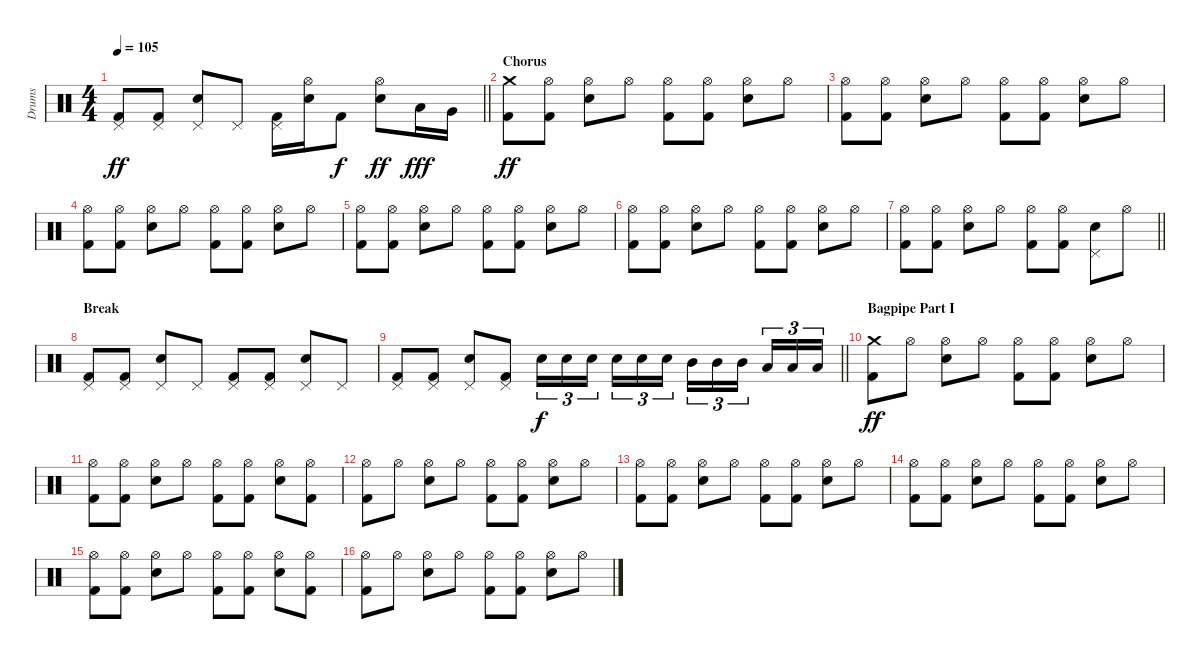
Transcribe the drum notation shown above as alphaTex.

\track ("Drums" "Drums") {instrument percussion}
\staff {score}
\articulation defaults
\ts (4 4)
\tempo 105
\clef neutral
\barLineRight lightlight
\ks c
("Pedal Hi-Hat (hit)" "Kick (hit) 2").8{dy ff} ("Pedal Hi-Hat (hit)" "Kick (hit) 2").8 ("Pedal Hi-Hat (hit)" "Electric Snare (hit)").8 "Pedal Hi-Hat (hit)".8 ("Pedal Hi-Hat (hit)" "Kick (hit) 2").16 ("Hi-Hat (open)" "Electric Snare (hit)").16 "Kick (hit) 2".8{dy f} ("Hi-Hat (open)" "Electric Snare (hit)").8{dy ff} "Low Tom (hit)".16{dy fff} "Very Low Tom (hit)".16 |
\section ("" "Chorus")
("Crash medium (hit)" "Kick (hit) 2").8{dy ff} ("Hi-Hat (open)" "Kick (hit) 2").8 ("Hi-Hat (open)" "Electric Snare (hit)").8 "Hi-Hat (open)".8 ("Hi-Hat (open)" "Kick (hit) 2").8 ("Hi-Hat (open)" "Kick (hit) 2").8 ("Hi-Hat (open)" "Electric Snare (hit)").8 "Hi-Hat (open)".8 |
("Hi-Hat (open)" "Kick (hit) 2").8 ("Hi-Hat (open)" "Kick (hit) 2").8 ("Hi-Hat (open)" "Electric Snare (hit)").8 "Hi-Hat (open)".8 ("Hi-Hat (open)" "Kick (hit) 2").8 ("Hi-Hat (open)" "Kick (hit) 2").8 ("Hi-Hat (open)" "Electric Snare (hit)").8 "Hi-Hat (open)".8 |
("Hi-Hat (open)" "Kick (hit) 2").8 ("Hi-Hat (open)" "Kick (hit) 2").8 ("Hi-Hat (open)" "Electric Snare (hit)").8 "Hi-Hat (open)".8 ("Hi-Hat (open)" "Kick (hit) 2").8 ("Hi-Hat (open)" "Kick (hit) 2").8 ("Hi-Hat (open)" "Electric Snare (hit)").8 "Hi-Hat (open)".8 |
("Hi-Hat (open)" "Kick (hit) 2").8 ("Hi-Hat (open)" "Kick (hit) 2").8 ("Hi-Hat (open)" "Electric Snare (hit)").8 "Hi-Hat (open)".8 ("Hi-Hat (open)" "Kick (hit) 2").8 ("Hi-Hat (open)" "Kick (hit) 2").8 ("Hi-Hat (open)" "Electric Snare (hit)").8 "Hi-Hat (open)".8 |
("Hi-Hat (open)" "Kick (hit) 2").8 ("Hi-Hat (open)" "Kick (hit) 2").8 ("Hi-Hat (open)" "Electric Snare (hit)").8 "Hi-Hat (open)".8 ("Hi-Hat (open)" "Kick (hit) 2").8 ("Hi-Hat (open)" "Kick (hit) 2").8 ("Hi-Hat (open)" "Electric Snare (hit)").8 "Hi-Hat (open)".8 |
\barLineRight lightlight
("Hi-Hat (open)" "Kick (hit) 2").8 ("Hi-Hat (open)" "Kick (hit) 2").8 ("Hi-Hat (open)" "Electric Snare (hit)").8 "Hi-Hat (open)".8 ("Hi-Hat (open)" "Kick (hit) 2").8 ("Hi-Hat (open)" "Kick (hit) 2").8 ("Pedal Hi-Hat (hit)" "Electric Snare (hit)").8 "Hi-Hat (open)".8 |
\section ("" "Break")
("Pedal Hi-Hat (hit)" "Kick (hit) 2").8 ("Pedal Hi-Hat (hit)" "Kick (hit) 2").8 ("Pedal Hi-Hat (hit)" "Electric Snare (hit)").8 "Pedal Hi-Hat (hit)".8 ("Pedal Hi-Hat (hit)" "Kick (hit) 2").8 ("Pedal Hi-Hat (hit)" "Kick (hit) 2").8 ("Pedal Hi-Hat (hit)" "Electric Snare (hit)").8 "Pedal Hi-Hat (hit)".8 |
\barLineRight lightlight
("Pedal Hi-Hat (hit)" "Kick (hit) 2").8 ("Pedal Hi-Hat (hit)" "Kick (hit) 2").8 ("Pedal Hi-Hat (hit)" "Electric Snare (hit)").8 ("Pedal Hi-Hat (hit)" "Kick (hit) 2").8 "Electric Snare (hit)".16{tu (3 2) dy f} "Electric Snare (hit)".16{tu (3 2)} "Electric Snare (hit)".16{tu (3 2)} "Electric Snare (hit)".16{tu (3 2)} "Electric Snare (hit)".16{tu (3 2)} "Electric Snare (hit)".16{tu (3 2)} "Mid Tom (hit)".16{tu (3 2)} "Mid Tom (hit)".16{tu (3 2)} "Mid Tom (hit)".16{tu (3 2)} "Low Tom (hit)".16{tu (3 2)} "Low Tom (hit)".16{tu (3 2)} "Low Tom (hit)".16{tu (3 2)} |
\section ("" "Bagpipe Part I")
("Crash medium (hit)" "Kick (hit) 2").8{dy ff} "Hi-Hat (open)".8 ("Hi-Hat (open)" "Electric Snare (hit)").8 "Hi-Hat (open)".8 ("Hi-Hat (open)" "Kick (hit) 2").8 ("Hi-Hat (open)" "Kick (hit) 2").8 ("Hi-Hat (open)" "Electric Snare (hit)").8 "Hi-Hat (open)".8 |
("Hi-Hat (open)" "Kick (hit) 2").8 ("Hi-Hat (open)" "Kick (hit) 2").8 ("Hi-Hat (open)" "Electric Snare (hit)").8 "Hi-Hat (open)".8 ("Hi-Hat (open)" "Kick (hit) 2").8 ("Hi-Hat (open)" "Kick (hit) 2").8 ("Hi-Hat (open)" "Electric Snare (hit)").8 ("Hi-Hat (open)" "Kick (hit) 2").8 |
("Hi-Hat (open)" "Kick (hit) 2").8 "Hi-Hat (open)".8 ("Hi-Hat (open)" "Electric Snare (hit)").8 "Hi-Hat (open)".8 ("Hi-Hat (open)" "Kick (hit) 2").8 ("Hi-Hat (open)" "Kick (hit) 2").8 ("Hi-Hat (open)" "Electric Snare (hit)").8 "Hi-Hat (open)".8 |
("Hi-Hat (open)" "Kick (hit) 2").8 ("Hi-Hat (open)" "Kick (hit) 2").8 ("Hi-Hat (open)" "Electric Snare (hit)").8 "Hi-Hat (open)".8 ("Hi-Hat (open)" "Kick (hit) 2").8 ("Hi-Hat (open)" "Kick (hit) 2").8 ("Hi-Hat (open)" "Electric Snare (hit)").8 "Hi-Hat (open)".8 |
("Hi-Hat (open)" "Kick (hit) 2").8 ("Hi-Hat (open)" "Kick (hit) 2").8 ("Hi-Hat (open)" "Electric Snare (hit)").8 "Hi-Hat (open)".8 ("Hi-Hat (open)" "Kick (hit) 2").8 ("Hi-Hat (open)" "Kick (hit) 2").8 ("Hi-Hat (open)" "Electric Snare (hit)").8 "Hi-Hat (open)".8 |
("Hi-Hat (open)" "Kick (hit) 2").8 ("Hi-Hat (open)" "Kick (hit) 2").8 ("Hi-Hat (open)" "Electric Snare (hit)").8 "Hi-Hat (open)".8 ("Hi-Hat (open)" "Kick (hit) 2").8 ("Hi-Hat (open)" "Kick (hit) 2").8 ("Hi-Hat (open)" "Electric Snare (hit)").8 ("Hi-Hat (open)" "Kick (hit) 2").8 |
("Hi-Hat (open)" "Kick (hit) 2").8 "Hi-Hat (open)".8 ("Hi-Hat (open)" "Electric Snare (hit)").8 "Hi-Hat (open)".8 ("Hi-Hat (open)" "Kick (hit) 2").8 ("Hi-Hat (open)" "Kick (hit) 2").8 ("Hi-Hat (open)" "Electric Snare (hit)").8 "Hi-Hat (open)".8
